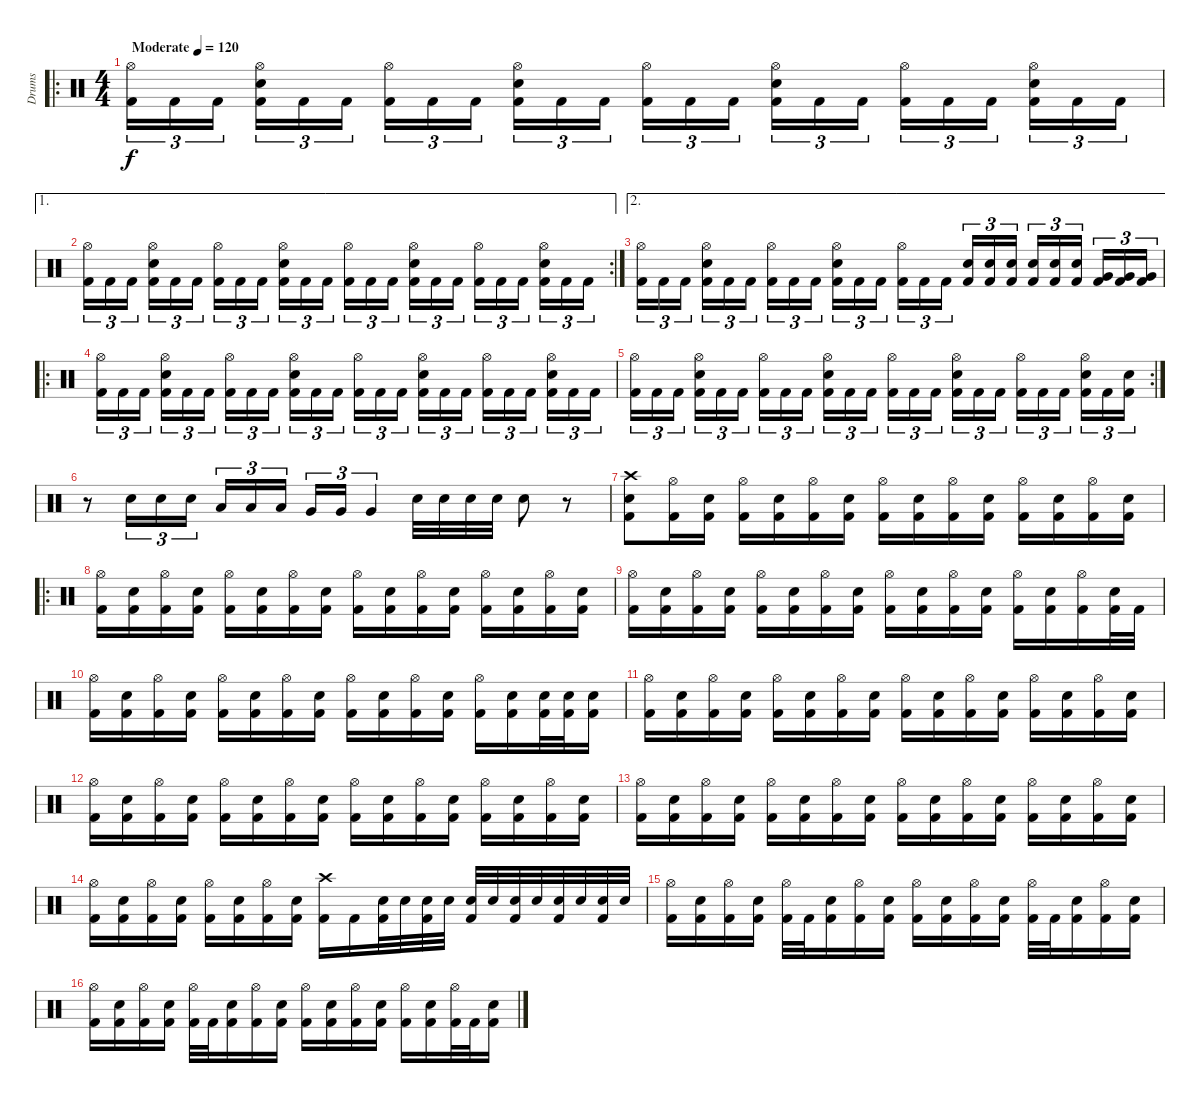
\track ("Drums" "Drums") {instrument percussion}
\staff {score}
\articulation defaults
\ro
\ts (4 4)
\tempo (120 "Moderate")
\clef neutral
\ks c
("Hi-Hat (open)" "Kick (hit) 2").16{tu (3 2) dy f} "Kick (hit) 2".16{tu (3 2)} "Kick (hit) 2".16{tu (3 2) beam splitsecondary} ("Hi-Hat (open)" "Electric Snare (hit)" "Kick (hit) 2").16{tu (3 2)} "Kick (hit) 2".16{tu (3 2)} "Kick (hit) 2".16{tu (3 2)} ("Hi-Hat (open)" "Kick (hit) 2").16{tu (3 2)} "Kick (hit) 2".16{tu (3 2)} "Kick (hit) 2".16{tu (3 2) beam splitsecondary} ("Hi-Hat (open)" "Electric Snare (hit)" "Kick (hit) 2").16{tu (3 2)} "Kick (hit) 2".16{tu (3 2)} "Kick (hit) 2".16{tu (3 2)} ("Hi-Hat (open)" "Kick (hit) 2").16{tu (3 2)} "Kick (hit) 2".16{tu (3 2)} "Kick (hit) 2".16{tu (3 2) beam splitsecondary} ("Hi-Hat (open)" "Electric Snare (hit)" "Kick (hit) 2").16{tu (3 2)} "Kick (hit) 2".16{tu (3 2)} "Kick (hit) 2".16{tu (3 2)} ("Hi-Hat (open)" "Kick (hit) 2").16{tu (3 2)} "Kick (hit) 2".16{tu (3 2)} "Kick (hit) 2".16{tu (3 2) beam splitsecondary} ("Hi-Hat (open)" "Electric Snare (hit)" "Kick (hit) 2").16{tu (3 2)} "Kick (hit) 2".16{tu (3 2)} "Kick (hit) 2".16{tu (3 2)} |
\ae 1
\rc 2
("Hi-Hat (open)" "Kick (hit) 2").16{tu (3 2)} "Kick (hit) 2".16{tu (3 2)} "Kick (hit) 2".16{tu (3 2) beam splitsecondary} ("Hi-Hat (open)" "Electric Snare (hit)" "Kick (hit) 2").16{tu (3 2)} "Kick (hit) 2".16{tu (3 2)} "Kick (hit) 2".16{tu (3 2)} ("Hi-Hat (open)" "Kick (hit) 2").16{tu (3 2)} "Kick (hit) 2".16{tu (3 2)} "Kick (hit) 2".16{tu (3 2) beam splitsecondary} ("Hi-Hat (open)" "Electric Snare (hit)" "Kick (hit) 2").16{tu (3 2)} "Kick (hit) 2".16{tu (3 2)} "Kick (hit) 2".16{tu (3 2)} ("Hi-Hat (open)" "Kick (hit) 2").16{tu (3 2)} "Kick (hit) 2".16{tu (3 2)} "Kick (hit) 2".16{tu (3 2) beam splitsecondary} ("Hi-Hat (open)" "Electric Snare (hit)" "Kick (hit) 2").16{tu (3 2)} "Kick (hit) 2".16{tu (3 2)} "Kick (hit) 2".16{tu (3 2)} ("Hi-Hat (open)" "Kick (hit) 2").16{tu (3 2)} "Kick (hit) 2".16{tu (3 2)} "Kick (hit) 2".16{tu (3 2) beam splitsecondary} ("Hi-Hat (open)" "Electric Snare (hit)" "Kick (hit) 2").16{tu (3 2)} "Kick (hit) 2".16{tu (3 2)} "Kick (hit) 2".16{tu (3 2)} |
\ae 2
("Hi-Hat (open)" "Kick (hit) 2").16{tu (3 2)} "Kick (hit) 2".16{tu (3 2)} "Kick (hit) 2".16{tu (3 2) beam splitsecondary} ("Hi-Hat (open)" "Electric Snare (hit)" "Kick (hit) 2").16{tu (3 2)} "Kick (hit) 2".16{tu (3 2)} "Kick (hit) 2".16{tu (3 2)} ("Hi-Hat (open)" "Kick (hit) 2").16{tu (3 2)} "Kick (hit) 2".16{tu (3 2)} "Kick (hit) 2".16{tu (3 2) beam splitsecondary} ("Hi-Hat (open)" "Electric Snare (hit)" "Kick (hit) 2").16{tu (3 2)} "Kick (hit) 2".16{tu (3 2)} "Kick (hit) 2".16{tu (3 2)} ("Hi-Hat (open)" "Kick (hit) 2").16{tu (3 2)} "Kick (hit) 2".16{tu (3 2)} "Kick (hit) 2".16{tu (3 2) beam splitsecondary} ("Electric Snare (hit)" "Kick (hit) 2").16{tu (3 2)} ("Electric Snare (hit)" "Kick (hit) 2").16{tu (3 2)} ("Electric Snare (hit)" "Kick (hit) 2").16{tu (3 2)} ("Electric Snare (hit)" "Kick (hit) 2").16{tu (3 2)} ("Electric Snare (hit)" "Kick (hit) 2").16{tu (3 2)} ("Electric Snare (hit)" "Kick (hit) 2").16{tu (3 2) beam splitsecondary} ("Very Low Tom (hit)" "Kick (hit) 2").16{tu (3 2)} ("Very Low Tom (hit)" "Kick (hit) 2").16{tu (3 2)} ("Very Low Tom (hit)" "Kick (hit) 2").16{tu (3 2)} |
\ro
("Hi-Hat (open)" "Kick (hit) 2").16{tu (3 2)} "Kick (hit) 2".16{tu (3 2)} "Kick (hit) 2".16{tu (3 2) beam splitsecondary} ("Hi-Hat (open)" "Electric Snare (hit)" "Kick (hit) 2").16{tu (3 2)} "Kick (hit) 2".16{tu (3 2)} "Kick (hit) 2".16{tu (3 2)} ("Hi-Hat (open)" "Kick (hit) 2").16{tu (3 2)} "Kick (hit) 2".16{tu (3 2)} "Kick (hit) 2".16{tu (3 2) beam splitsecondary} ("Hi-Hat (open)" "Electric Snare (hit)" "Kick (hit) 2").16{tu (3 2)} "Kick (hit) 2".16{tu (3 2)} "Kick (hit) 2".16{tu (3 2)} ("Hi-Hat (open)" "Kick (hit) 2").16{tu (3 2)} "Kick (hit) 2".16{tu (3 2)} "Kick (hit) 2".16{tu (3 2) beam splitsecondary} ("Hi-Hat (open)" "Electric Snare (hit)" "Kick (hit) 2").16{tu (3 2)} "Kick (hit) 2".16{tu (3 2)} "Kick (hit) 2".16{tu (3 2)} ("Hi-Hat (open)" "Kick (hit) 2").16{tu (3 2)} "Kick (hit) 2".16{tu (3 2)} "Kick (hit) 2".16{tu (3 2) beam splitsecondary} ("Hi-Hat (open)" "Electric Snare (hit)" "Kick (hit) 2").16{tu (3 2)} "Kick (hit) 2".16{tu (3 2)} "Kick (hit) 2".16{tu (3 2)} |
\rc 2
("Hi-Hat (open)" "Kick (hit) 2").16{tu (3 2)} "Kick (hit) 2".16{tu (3 2)} "Kick (hit) 2".16{tu (3 2) beam splitsecondary} ("Hi-Hat (open)" "Electric Snare (hit)" "Kick (hit) 2").16{tu (3 2)} "Kick (hit) 2".16{tu (3 2)} "Kick (hit) 2".16{tu (3 2)} ("Hi-Hat (open)" "Kick (hit) 2").16{tu (3 2)} "Kick (hit) 2".16{tu (3 2)} "Kick (hit) 2".16{tu (3 2) beam splitsecondary} ("Hi-Hat (open)" "Electric Snare (hit)" "Kick (hit) 2").16{tu (3 2)} "Kick (hit) 2".16{tu (3 2)} "Kick (hit) 2".16{tu (3 2)} ("Hi-Hat (open)" "Kick (hit) 2").16{tu (3 2)} "Kick (hit) 2".16{tu (3 2)} "Kick (hit) 2".16{tu (3 2) beam splitsecondary} ("Hi-Hat (open)" "Electric Snare (hit)" "Kick (hit) 2").16{tu (3 2)} "Kick (hit) 2".16{tu (3 2)} "Kick (hit) 2".16{tu (3 2)} ("Hi-Hat (open)" "Kick (hit) 2").16{tu (3 2)} "Kick (hit) 2".16{tu (3 2)} "Kick (hit) 2".16{tu (3 2) beam splitsecondary} ("Hi-Hat (open)" "Electric Snare (hit)" "Kick (hit) 2").16{tu (3 2)} "Kick (hit) 2".16{tu (3 2)} ("Electric Snare (hit)" "Kick (hit) 2").16{tu (3 2)} |
r.8 "Electric Snare (hit)".16{tu (3 2)} "Electric Snare (hit)".16{tu (3 2)} "Electric Snare (hit)".16{tu (3 2)} "Low Tom (hit)".16{tu (3 2)} "Low Tom (hit)".16{tu (3 2)} "Low Tom (hit)".16{tu (3 2) beam splitsecondary} "Very Low Tom (hit)".16{tu (3 2)} "Very Low Tom (hit)".16{tu (3 2)} "Very Low Tom (hit)".4{tu (3 2)} "Electric Snare (hit)".32 "Electric Snare (hit)".32 "Electric Snare (hit)".32 "Electric Snare (hit)".32 "Electric Snare (hit)".8 r.8 |
("Crash high (hit)" "Electric Snare (hit)" "Kick (hit) 2").8 ("Hi-Hat (open)" "Kick (hit) 2").16 ("Electric Snare (hit)" "Kick (hit) 2").16 ("Hi-Hat (open)" "Kick (hit) 2").16 ("Electric Snare (hit)" "Kick (hit) 2").16 ("Hi-Hat (open)" "Kick (hit) 2").16 ("Electric Snare (hit)" "Kick (hit) 2").16 ("Hi-Hat (open)" "Kick (hit) 2").16 ("Electric Snare (hit)" "Kick (hit) 2").16 ("Hi-Hat (open)" "Kick (hit) 2").16 ("Electric Snare (hit)" "Kick (hit) 2").16 ("Hi-Hat (open)" "Kick (hit) 2").16 ("Electric Snare (hit)" "Kick (hit) 2").16 ("Hi-Hat (open)" "Kick (hit) 2").16 ("Electric Snare (hit)" "Kick (hit) 2").16 |
\ro
("Hi-Hat (open)" "Kick (hit) 2").16 ("Electric Snare (hit)" "Kick (hit) 2").16 ("Hi-Hat (open)" "Kick (hit) 2").16 ("Electric Snare (hit)" "Kick (hit) 2").16 ("Hi-Hat (open)" "Kick (hit) 2").16 ("Electric Snare (hit)" "Kick (hit) 2").16 ("Hi-Hat (open)" "Kick (hit) 2").16 ("Electric Snare (hit)" "Kick (hit) 2").16 ("Hi-Hat (open)" "Kick (hit) 2").16 ("Electric Snare (hit)" "Kick (hit) 2").16 ("Hi-Hat (open)" "Kick (hit) 2").16 ("Electric Snare (hit)" "Kick (hit) 2").16 ("Hi-Hat (open)" "Kick (hit) 2").16 ("Electric Snare (hit)" "Kick (hit) 2").16 ("Hi-Hat (open)" "Kick (hit) 2").16 ("Electric Snare (hit)" "Kick (hit) 2").16 |
("Hi-Hat (open)" "Kick (hit) 2").16 ("Electric Snare (hit)" "Kick (hit) 2").16 ("Hi-Hat (open)" "Kick (hit) 2").16 ("Electric Snare (hit)" "Kick (hit) 2").16 ("Hi-Hat (open)" "Kick (hit) 2").16 ("Electric Snare (hit)" "Kick (hit) 2").16 ("Hi-Hat (open)" "Kick (hit) 2").16 ("Electric Snare (hit)" "Kick (hit) 2").16 ("Hi-Hat (open)" "Kick (hit) 2").16 ("Electric Snare (hit)" "Kick (hit) 2").16 ("Hi-Hat (open)" "Kick (hit) 2").16 ("Electric Snare (hit)" "Kick (hit) 2").16 ("Hi-Hat (open)" "Kick (hit) 2").16 ("Electric Snare (hit)" "Kick (hit) 2").16 ("Hi-Hat (open)" "Kick (hit) 2").16 ("Electric Snare (hit)" "Kick (hit) 2").32 "Kick (hit) 2".32 |
("Hi-Hat (open)" "Kick (hit) 2").16 ("Electric Snare (hit)" "Kick (hit) 2").16 ("Hi-Hat (open)" "Kick (hit) 2").16 ("Electric Snare (hit)" "Kick (hit) 2").16 ("Hi-Hat (open)" "Kick (hit) 2").16 ("Electric Snare (hit)" "Kick (hit) 2").16 ("Hi-Hat (open)" "Kick (hit) 2").16 ("Electric Snare (hit)" "Kick (hit) 2").16 ("Hi-Hat (open)" "Kick (hit) 2").16 ("Electric Snare (hit)" "Kick (hit) 2").16 ("Hi-Hat (open)" "Kick (hit) 2").16 ("Electric Snare (hit)" "Kick (hit) 2").16 ("Hi-Hat (open)" "Kick (hit) 2").16 ("Electric Snare (hit)" "Kick (hit) 2").16 ("Electric Snare (hit)" "Kick (hit) 2").32 ("Electric Snare (hit)" "Kick (hit) 2").32 ("Electric Snare (hit)" "Kick (hit) 2").16 |
("Hi-Hat (open)" "Kick (hit) 2").16 ("Electric Snare (hit)" "Kick (hit) 2").16 ("Hi-Hat (open)" "Kick (hit) 2").16 ("Electric Snare (hit)" "Kick (hit) 2").16 ("Hi-Hat (open)" "Kick (hit) 2").16 ("Electric Snare (hit)" "Kick (hit) 2").16 ("Hi-Hat (open)" "Kick (hit) 2").16 ("Electric Snare (hit)" "Kick (hit) 2").16 ("Hi-Hat (open)" "Kick (hit) 2").16 ("Electric Snare (hit)" "Kick (hit) 2").16 ("Hi-Hat (open)" "Kick (hit) 2").16 ("Electric Snare (hit)" "Kick (hit) 2").16 ("Hi-Hat (open)" "Kick (hit) 2").16 ("Electric Snare (hit)" "Kick (hit) 2").16 ("Hi-Hat (open)" "Kick (hit) 2").16 ("Electric Snare (hit)" "Kick (hit) 2").16 |
("Hi-Hat (open)" "Kick (hit) 2").16 ("Electric Snare (hit)" "Kick (hit) 2").16 ("Hi-Hat (open)" "Kick (hit) 2").16 ("Electric Snare (hit)" "Kick (hit) 2").16 ("Hi-Hat (open)" "Kick (hit) 2").16 ("Electric Snare (hit)" "Kick (hit) 2").16 ("Hi-Hat (open)" "Kick (hit) 2").16 ("Electric Snare (hit)" "Kick (hit) 2").16 ("Hi-Hat (open)" "Kick (hit) 2").16 ("Electric Snare (hit)" "Kick (hit) 2").16 ("Hi-Hat (open)" "Kick (hit) 2").16 ("Electric Snare (hit)" "Kick (hit) 2").16 ("Hi-Hat (open)" "Kick (hit) 2").16 ("Electric Snare (hit)" "Kick (hit) 2").16 ("Hi-Hat (open)" "Kick (hit) 2").16 ("Electric Snare (hit)" "Kick (hit) 2").16 |
("Hi-Hat (open)" "Kick (hit) 2").16 ("Electric Snare (hit)" "Kick (hit) 2").16 ("Hi-Hat (open)" "Kick (hit) 2").16 ("Electric Snare (hit)" "Kick (hit) 2").16 ("Hi-Hat (open)" "Kick (hit) 2").16 ("Electric Snare (hit)" "Kick (hit) 2").16 ("Hi-Hat (open)" "Kick (hit) 2").16 ("Electric Snare (hit)" "Kick (hit) 2").16 ("Hi-Hat (open)" "Kick (hit) 2").16 ("Electric Snare (hit)" "Kick (hit) 2").16 ("Hi-Hat (open)" "Kick (hit) 2").16 ("Electric Snare (hit)" "Kick (hit) 2").16 ("Hi-Hat (open)" "Kick (hit) 2").16 ("Electric Snare (hit)" "Kick (hit) 2").16 ("Hi-Hat (open)" "Kick (hit) 2").16 ("Electric Snare (hit)" "Kick (hit) 2").16 |
("Hi-Hat (open)" "Kick (hit) 2").16 ("Electric Snare (hit)" "Kick (hit) 2").16 ("Hi-Hat (open)" "Kick (hit) 2").16 ("Electric Snare (hit)" "Kick (hit) 2").16 ("Hi-Hat (open)" "Kick (hit) 2").16 ("Electric Snare (hit)" "Kick (hit) 2").16 ("Hi-Hat (open)" "Kick (hit) 2").16 ("Electric Snare (hit)" "Kick (hit) 2").16 ("Crash high (hit)" "Kick (hit) 2").16 "Kick (hit) 2".16 ("Electric Snare (hit)" "Kick (hit) 2").32 "Electric Snare (hit)".32 ("Electric Snare (hit)" "Kick (hit) 2").32 "Electric Snare (hit)".32 ("Electric Snare (hit)" "Kick (hit) 2").32 "Electric Snare (hit)".32 ("Electric Snare (hit)" "Kick (hit) 2").32 "Electric Snare (hit)".32 ("Electric Snare (hit)" "Kick (hit) 2").32 "Electric Snare (hit)".32 ("Electric Snare (hit)" "Kick (hit) 2").32 "Electric Snare (hit)".32 |
("Hi-Hat (open)" "Kick (hit) 2").16 ("Electric Snare (hit)" "Kick (hit) 2").16 ("Hi-Hat (open)" "Kick (hit) 2").16 ("Electric Snare (hit)" "Kick (hit) 2").16 ("Hi-Hat (open)" "Kick (hit) 2").32 "Kick (hit) 2".32 ("Electric Snare (hit)" "Kick (hit) 2").16 ("Hi-Hat (open)" "Kick (hit) 2").16 ("Electric Snare (hit)" "Kick (hit) 2").16 ("Hi-Hat (open)" "Kick (hit) 2").16 ("Electric Snare (hit)" "Kick (hit) 2").16 ("Hi-Hat (open)" "Kick (hit) 2").16 ("Electric Snare (hit)" "Kick (hit) 2").16 ("Hi-Hat (open)" "Kick (hit) 2").32 "Kick (hit) 2".32 ("Electric Snare (hit)" "Kick (hit) 2").16 ("Hi-Hat (open)" "Kick (hit) 2").16 ("Electric Snare (hit)" "Kick (hit) 2").16 |
("Hi-Hat (open)" "Kick (hit) 2").16 ("Electric Snare (hit)" "Kick (hit) 2").16 ("Hi-Hat (open)" "Kick (hit) 2").16 ("Electric Snare (hit)" "Kick (hit) 2").16 ("Hi-Hat (open)" "Kick (hit) 2").32 "Kick (hit) 2".32 ("Electric Snare (hit)" "Kick (hit) 2").16 ("Hi-Hat (open)" "Kick (hit) 2").16 ("Electric Snare (hit)" "Kick (hit) 2").16 ("Hi-Hat (open)" "Kick (hit) 2").16 ("Electric Snare (hit)" "Kick (hit) 2").16 ("Hi-Hat (open)" "Kick (hit) 2").16 ("Electric Snare (hit)" "Kick (hit) 2").16 ("Hi-Hat (open)" "Kick (hit) 2").16 ("Electric Snare (hit)" "Kick (hit) 2").16 ("Hi-Hat (open)" "Kick (hit) 2").32 "Kick (hit) 2".32 ("Electric Snare (hit)" "Kick (hit) 2").16
